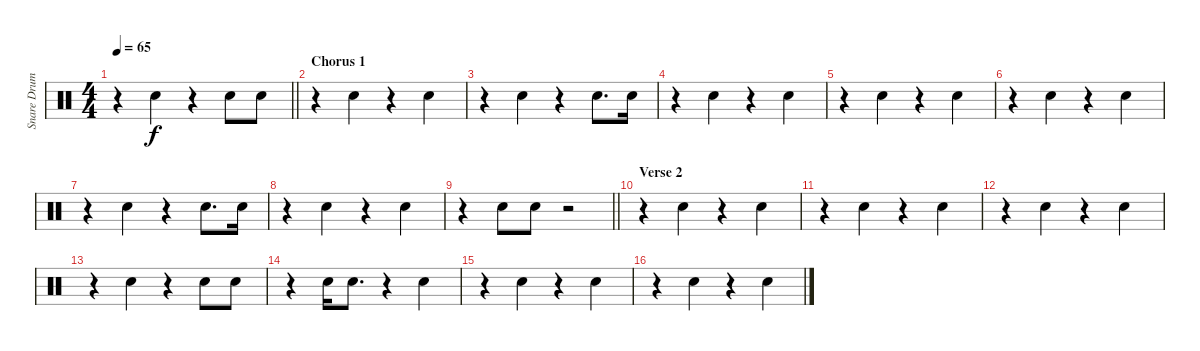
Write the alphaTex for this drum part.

\track ("Snare Drum - reverb" "Snare Drum") {instrument percussion}
\staff {score}
\articulation defaults
\ts (4 4)
\tempo 65
\clef neutral
\barLineRight lightlight
\ks c
r.4{dy f} "Snare (hit) 2".4 r.4 "Snare (hit) 2".8 "Snare (hit) 2".8 |
\section ("" "Chorus 1")
r.4 "Snare (hit) 2".4 r.4 "Snare (hit) 2".4 |
r.4 "Snare (hit) 2".4 r.4 "Snare (hit) 2".8{d} "Snare (hit) 2".16 |
r.4 "Snare (hit) 2".4 r.4 "Snare (hit) 2".4 |
r.4 "Snare (hit) 2".4 r.4 "Snare (hit) 2".4 |
r.4 "Snare (hit) 2".4 r.4 "Snare (hit) 2".4 |
r.4 "Snare (hit) 2".4 r.4 "Snare (hit) 2".8{d} "Snare (hit) 2".16 |
r.4 "Snare (hit) 2".4 r.4 "Snare (hit) 2".4 |
\barLineRight lightlight
r.4 "Snare (hit) 2".8 "Snare (hit) 2".8 r.2 |
\section ("" "Verse 2")
r.4 "Snare (hit) 2".4 r.4 "Snare (hit) 2".4 |
r.4 "Snare (hit) 2".4 r.4 "Snare (hit) 2".4 |
r.4 "Snare (hit) 2".4 r.4 "Snare (hit) 2".4 |
r.4 "Snare (hit) 2".4 r.4 "Snare (hit) 2".8 "Snare (hit) 2".8 |
r.4 "Snare (hit) 2".16 "Snare (hit) 2".8{d} r.4{beam merge} "Snare (hit) 2".4 |
r.4 "Snare (hit) 2".4 r.4 "Snare (hit) 2".4 |
r.4 "Snare (hit) 2".4 r.4 "Snare (hit) 2".4
